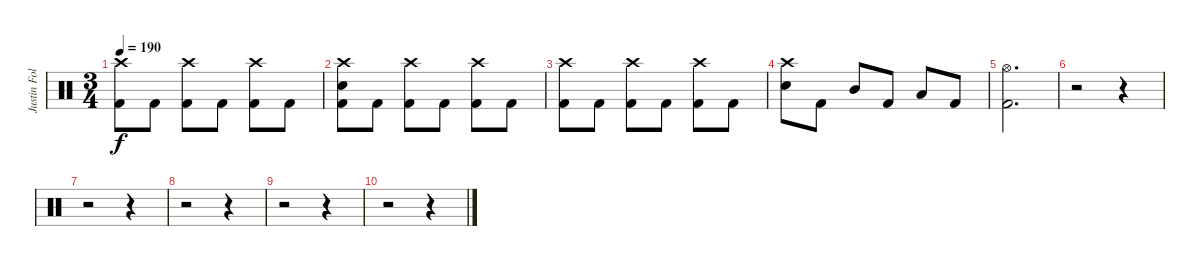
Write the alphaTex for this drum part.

\track ("Justin Foley" "Justin Fol") {instrument percussion}
\staff {score}
\articulation defaults
\ts (3 4)
\tempo 190
\clef neutral
\ks c
("Crash high (hit)" "Kick (hit) 2").8{dy f} "Kick (hit) 2".8 ("Crash high (hit)" "Kick (hit) 2").8 "Kick (hit) 2".8 ("Crash high (hit)" "Kick (hit) 2").8 "Kick (hit) 2".8 |
("Crash high (hit)" "Electric Snare (hit)" "Kick (hit) 2").8 "Kick (hit) 2".8 ("Crash high (hit)" "Kick (hit) 2").8 "Kick (hit) 2".8 ("Crash high (hit)" "Kick (hit) 2").8 "Kick (hit) 2".8 |
("Crash high (hit)" "Kick (hit) 2").8 "Kick (hit) 2".8 ("Crash high (hit)" "Kick (hit) 2").8 "Kick (hit) 2".8 ("Crash high (hit)" "Kick (hit) 2").8 "Kick (hit) 2".8 |
("Crash high (hit)" "Electric Snare (hit)").8 "Kick (hit) 2".8 "Mid Tom (hit)".8 "Kick (hit) 2".8 "Low Tom (hit)".8 "Kick (hit) 2".8 |
("Hi-Hat (open)" "Kick (hit) 2").2{d} |
r.2 r.4 |
r.2 r.4 |
r.2 r.4 |
r.2 r.4 |
r.2 r.4
